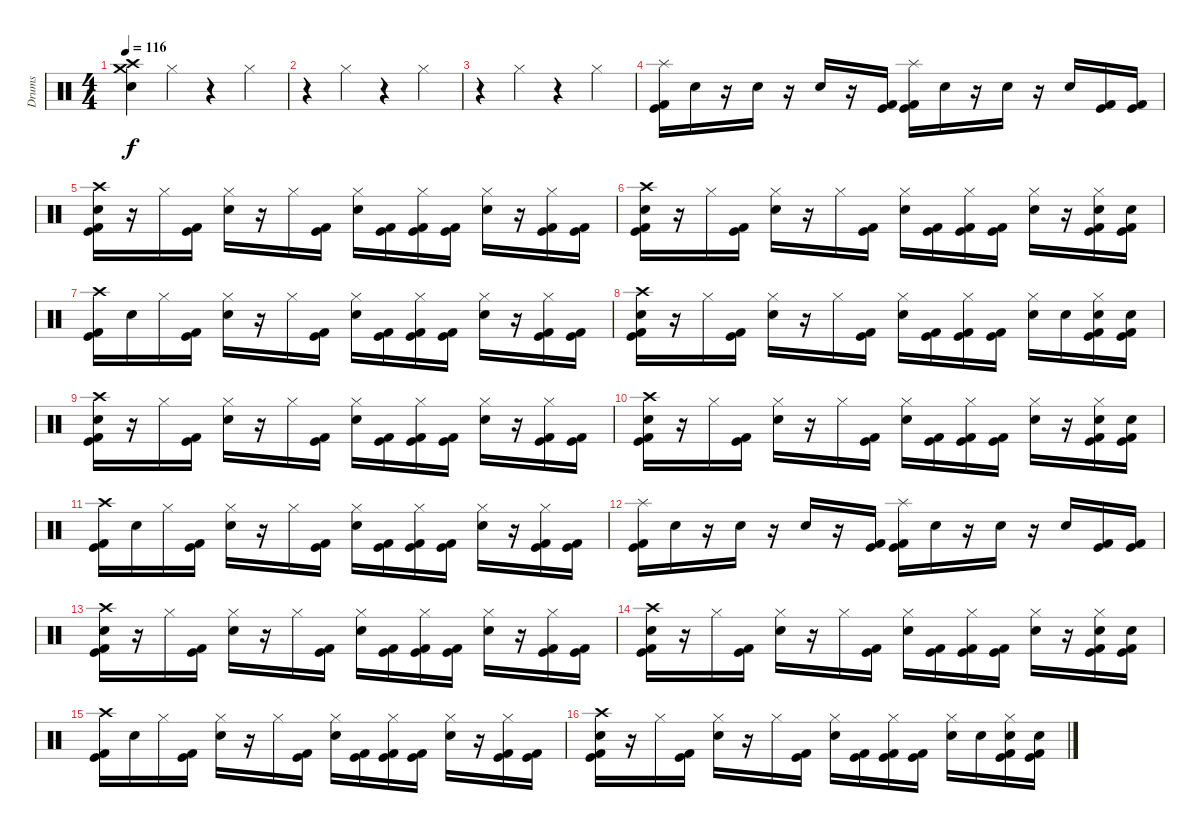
\track ("Drums" "Drums") {instrument percussion}
\staff {score}
\articulation defaults
\ts (4 4)
\tempo 116
\clef neutral
\ks c
("Crash high (hit)" "Crash medium (hit)" "Electric Snare (hit)").4{dy f} "Hi-Hat (closed)".4 r.4 "Hi-Hat (closed)".4 |
r.4 "Hi-Hat (closed)".4 r.4 "Hi-Hat (closed)".4 |
r.4 "Hi-Hat (closed)".4 r.4 "Hi-Hat (closed)".4 |
("Splash (hit)" "Kick (hit) 2" "Kick (hit)").16 "Electric Snare (hit)".16 r.16 "Electric Snare (hit)".16 r.16 "Electric Snare (hit)".16 r.16 ("Kick (hit) 2" "Kick (hit)").16 ("Splash (hit)" "Kick (hit) 2" "Kick (hit)").16 "Electric Snare (hit)".16 r.16 "Electric Snare (hit)".16 r.16 "Electric Snare (hit)".16 ("Kick (hit) 2" "Kick (hit)").16 ("Kick (hit) 2" "Kick (hit)").16 |
("Crash high (hit)" "Electric Snare (hit)" "Kick (hit) 2" "Kick (hit)").16 r.16 "Hi-Hat (closed)".16 ("Kick (hit)" "Kick (hit) 2").16 ("Hi-Hat (closed)" "Electric Snare (hit)").16 r.16 "Hi-Hat (closed)".16 ("Kick (hit) 2" "Kick (hit)").16 ("Hi-Hat (closed)" "Electric Snare (hit)").16 ("Kick (hit) 2" "Kick (hit)").16 ("Hi-Hat (closed)" "Kick (hit) 2" "Kick (hit)").16 ("Kick (hit) 2" "Kick (hit)").16 ("Hi-Hat (closed)" "Electric Snare (hit)").16 r.16 ("Hi-Hat (closed)" "Kick (hit) 2" "Kick (hit)").16 ("Kick (hit) 2" "Kick (hit)").16 |
("Crash high (hit)" "Electric Snare (hit)" "Kick (hit) 2" "Kick (hit)").16 r.16 "Hi-Hat (closed)".16 ("Kick (hit)" "Kick (hit) 2").16 ("Hi-Hat (closed)" "Electric Snare (hit)").16 r.16 "Hi-Hat (closed)".16 ("Kick (hit) 2" "Kick (hit)").16 ("Hi-Hat (closed)" "Electric Snare (hit)").16 ("Kick (hit) 2" "Kick (hit)").16 ("Hi-Hat (closed)" "Kick (hit) 2" "Kick (hit)").16 ("Kick (hit) 2" "Kick (hit)").16 ("Hi-Hat (closed)" "Electric Snare (hit)").16 r.16 ("Hi-Hat (closed)" "Electric Snare (hit)" "Kick (hit) 2" "Kick (hit)").16 ("Electric Snare (hit)" "Kick (hit) 2" "Kick (hit)").16 |
("Crash high (hit)" "Kick (hit) 2" "Kick (hit)").16 "Electric Snare (hit)".16 "Hi-Hat (closed)".16 ("Kick (hit)" "Kick (hit) 2").16 ("Hi-Hat (closed)" "Electric Snare (hit)").16 r.16 "Hi-Hat (closed)".16 ("Kick (hit) 2" "Kick (hit)").16 ("Hi-Hat (closed)" "Electric Snare (hit)").16 ("Kick (hit) 2" "Kick (hit)").16 ("Hi-Hat (closed)" "Kick (hit) 2" "Kick (hit)").16 ("Kick (hit) 2" "Kick (hit)").16 ("Hi-Hat (closed)" "Electric Snare (hit)").16 r.16 ("Hi-Hat (closed)" "Kick (hit) 2" "Kick (hit)").16 ("Kick (hit) 2" "Kick (hit)").16 |
("Crash high (hit)" "Electric Snare (hit)" "Kick (hit) 2" "Kick (hit)").16 r.16 "Hi-Hat (closed)".16 ("Kick (hit)" "Kick (hit) 2").16 ("Hi-Hat (closed)" "Electric Snare (hit)").16 r.16 "Hi-Hat (closed)".16 ("Kick (hit) 2" "Kick (hit)").16 ("Hi-Hat (closed)" "Electric Snare (hit)").16 ("Kick (hit) 2" "Kick (hit)").16 ("Hi-Hat (closed)" "Kick (hit) 2" "Kick (hit)").16 ("Kick (hit) 2" "Kick (hit)").16 ("Hi-Hat (closed)" "Electric Snare (hit)").16 "Electric Snare (hit)".16 ("Hi-Hat (closed)" "Electric Snare (hit)" "Kick (hit) 2" "Kick (hit)").16 ("Electric Snare (hit)" "Kick (hit) 2" "Kick (hit)").16 |
("Crash high (hit)" "Electric Snare (hit)" "Kick (hit) 2" "Kick (hit)").16 r.16 "Hi-Hat (closed)".16 ("Kick (hit)" "Kick (hit) 2").16 ("Hi-Hat (closed)" "Electric Snare (hit)").16 r.16 "Hi-Hat (closed)".16 ("Kick (hit) 2" "Kick (hit)").16 ("Hi-Hat (closed)" "Electric Snare (hit)").16 ("Kick (hit) 2" "Kick (hit)").16 ("Hi-Hat (closed)" "Kick (hit) 2" "Kick (hit)").16 ("Kick (hit) 2" "Kick (hit)").16 ("Hi-Hat (closed)" "Electric Snare (hit)").16 r.16 ("Hi-Hat (closed)" "Kick (hit) 2" "Kick (hit)").16 ("Kick (hit) 2" "Kick (hit)").16 |
("Crash high (hit)" "Electric Snare (hit)" "Kick (hit) 2" "Kick (hit)").16 r.16 "Hi-Hat (closed)".16 ("Kick (hit)" "Kick (hit) 2").16 ("Hi-Hat (closed)" "Electric Snare (hit)").16 r.16 "Hi-Hat (closed)".16 ("Kick (hit) 2" "Kick (hit)").16 ("Hi-Hat (closed)" "Electric Snare (hit)").16 ("Kick (hit) 2" "Kick (hit)").16 ("Hi-Hat (closed)" "Kick (hit) 2" "Kick (hit)").16 ("Kick (hit) 2" "Kick (hit)").16 ("Hi-Hat (closed)" "Electric Snare (hit)").16 r.16 ("Hi-Hat (closed)" "Electric Snare (hit)" "Kick (hit) 2" "Kick (hit)").16 ("Electric Snare (hit)" "Kick (hit) 2" "Kick (hit)").16 |
("Crash high (hit)" "Kick (hit) 2" "Kick (hit)").16 "Electric Snare (hit)".16 "Hi-Hat (closed)".16 ("Kick (hit)" "Kick (hit) 2").16 ("Hi-Hat (closed)" "Electric Snare (hit)").16 r.16 "Hi-Hat (closed)".16 ("Kick (hit) 2" "Kick (hit)").16 ("Hi-Hat (closed)" "Electric Snare (hit)").16 ("Kick (hit) 2" "Kick (hit)").16 ("Hi-Hat (closed)" "Kick (hit) 2" "Kick (hit)").16 ("Kick (hit) 2" "Kick (hit)").16 ("Hi-Hat (closed)" "Electric Snare (hit)").16 r.16 ("Hi-Hat (closed)" "Kick (hit) 2" "Kick (hit)").16 ("Kick (hit) 2" "Kick (hit)").16 |
("Splash (hit)" "Kick (hit) 2" "Kick (hit)").16 "Electric Snare (hit)".16 r.16 "Electric Snare (hit)".16 r.16 "Electric Snare (hit)".16 r.16 ("Kick (hit) 2" "Kick (hit)").16 ("Splash (hit)" "Kick (hit) 2" "Kick (hit)").16 "Electric Snare (hit)".16 r.16 "Electric Snare (hit)".16 r.16 "Electric Snare (hit)".16 ("Kick (hit) 2" "Kick (hit)").16 ("Kick (hit) 2" "Kick (hit)").16 |
("Crash high (hit)" "Electric Snare (hit)" "Kick (hit) 2" "Kick (hit)").16 r.16 "Hi-Hat (closed)".16 ("Kick (hit)" "Kick (hit) 2").16 ("Hi-Hat (closed)" "Electric Snare (hit)").16 r.16 "Hi-Hat (closed)".16 ("Kick (hit) 2" "Kick (hit)").16 ("Hi-Hat (closed)" "Electric Snare (hit)").16 ("Kick (hit) 2" "Kick (hit)").16 ("Hi-Hat (closed)" "Kick (hit) 2" "Kick (hit)").16 ("Kick (hit) 2" "Kick (hit)").16 ("Hi-Hat (closed)" "Electric Snare (hit)").16 r.16 ("Hi-Hat (closed)" "Kick (hit) 2" "Kick (hit)").16 ("Kick (hit) 2" "Kick (hit)").16 |
("Crash high (hit)" "Electric Snare (hit)" "Kick (hit) 2" "Kick (hit)").16 r.16 "Hi-Hat (closed)".16 ("Kick (hit)" "Kick (hit) 2").16 ("Hi-Hat (closed)" "Electric Snare (hit)").16 r.16 "Hi-Hat (closed)".16 ("Kick (hit) 2" "Kick (hit)").16 ("Hi-Hat (closed)" "Electric Snare (hit)").16 ("Kick (hit) 2" "Kick (hit)").16 ("Hi-Hat (closed)" "Kick (hit) 2" "Kick (hit)").16 ("Kick (hit) 2" "Kick (hit)").16 ("Hi-Hat (closed)" "Electric Snare (hit)").16 r.16 ("Hi-Hat (closed)" "Electric Snare (hit)" "Kick (hit) 2" "Kick (hit)").16 ("Electric Snare (hit)" "Kick (hit) 2" "Kick (hit)").16 |
("Crash high (hit)" "Kick (hit) 2" "Kick (hit)").16 "Electric Snare (hit)".16 "Hi-Hat (closed)".16 ("Kick (hit)" "Kick (hit) 2").16 ("Hi-Hat (closed)" "Electric Snare (hit)").16 r.16 "Hi-Hat (closed)".16 ("Kick (hit) 2" "Kick (hit)").16 ("Hi-Hat (closed)" "Electric Snare (hit)").16 ("Kick (hit) 2" "Kick (hit)").16 ("Hi-Hat (closed)" "Kick (hit) 2" "Kick (hit)").16 ("Kick (hit) 2" "Kick (hit)").16 ("Hi-Hat (closed)" "Electric Snare (hit)").16 r.16 ("Hi-Hat (closed)" "Kick (hit) 2" "Kick (hit)").16 ("Kick (hit) 2" "Kick (hit)").16 |
("Crash high (hit)" "Electric Snare (hit)" "Kick (hit) 2" "Kick (hit)").16 r.16 "Hi-Hat (closed)".16 ("Kick (hit)" "Kick (hit) 2").16 ("Hi-Hat (closed)" "Electric Snare (hit)").16 r.16 "Hi-Hat (closed)".16 ("Kick (hit) 2" "Kick (hit)").16 ("Hi-Hat (closed)" "Electric Snare (hit)").16 ("Kick (hit) 2" "Kick (hit)").16 ("Hi-Hat (closed)" "Kick (hit) 2" "Kick (hit)").16 ("Kick (hit) 2" "Kick (hit)").16 ("Hi-Hat (closed)" "Electric Snare (hit)").16 "Electric Snare (hit)".16 ("Hi-Hat (closed)" "Electric Snare (hit)" "Kick (hit) 2" "Kick (hit)").16 ("Electric Snare (hit)" "Kick (hit) 2" "Kick (hit)").16
